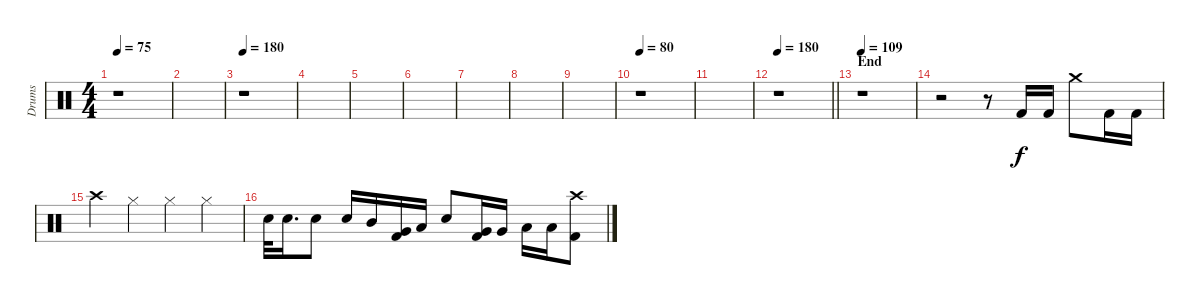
\track ("Drums" "Drums") {instrument percussion}
\staff {score}
\articulation defaults
\ts (4 4)
\tempo 75
\clef neutral
\ks c
r.1{dy f} |
|
\tempo 180
r.1 |
|
|
|
|
|
|
\tempo 80
r.1 |
|
\tempo 180
\barLineRight lightlight
r.1 |
\section ("" "End")
\tempo 109
r.1 |
r.2 r.8 "Kick (hit) 2".16 "Kick (hit) 2".16 "Crash medium (hit)".8 "Kick (hit) 2".16 "Kick (hit) 2".16 |
"Crash high (hit)".4 "Hi-Hat (closed)".4 "Hi-Hat (closed)".4 "Hi-Hat (closed)".4 |
"Snare (hit) 2".32 "Snare (hit) 2".16{d} "Snare (hit) 2".8 "Snare (hit) 2".16 "Mid Tom (hit)".16 ("Kick (hit) 2" "Very Low Tom (hit)").16 "Low Floor Tom (hit)".16 "Snare (hit) 2".8 ("Kick (hit) 2" "Very Low Tom (hit)").16 "Very Low Tom (hit)".16 "Low Floor Tom (hit)".16 "Low Floor Tom (hit)".16 ("Kick (hit) 2" "Crash high (hit)").8
